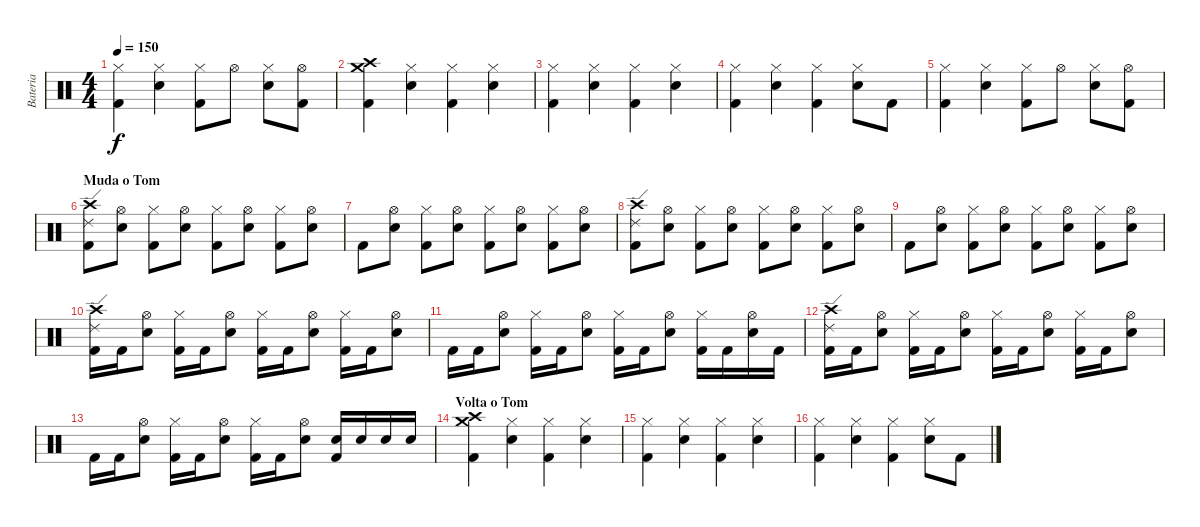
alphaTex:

\track ("Bateria" "Bateria") {instrument percussion}
\staff {score}
\articulation defaults
\ts (4 4)
\tempo 150
\clef neutral
\ks c
("Kick (hit) 2" "Hi-Hat (closed)").4{dy f} ("Metronome (bell)" "Hi-Hat (closed)").4 ("Kick (hit) 2" "Hi-Hat (closed)").8 "Hi-Hat (open)".8 ("Metronome (bell)" "Hi-Hat (closed)").8 ("Kick (hit) 2" "Hi-Hat (open)").8 |
("Kick (hit) 2" "Crash high (hit)" "Crash medium (hit)").4 ("Metronome (bell)" "Hi-Hat (closed)").4 ("Kick (hit) 2" "Hi-Hat (closed)").4 ("Metronome (bell)" "Hi-Hat (closed)").4 |
("Kick (hit) 2" "Hi-Hat (closed)").4 ("Metronome (bell)" "Hi-Hat (closed)").4 ("Kick (hit) 2" "Hi-Hat (closed)").4 ("Metronome (bell)" "Hi-Hat (closed)").4 |
("Kick (hit) 2" "Hi-Hat (closed)").4 ("Metronome (bell)" "Hi-Hat (closed)").4 ("Kick (hit) 2" "Hi-Hat (closed)").4 ("Metronome (bell)" "Hi-Hat (closed)").8 "Kick (hit) 2".8 |
("Kick (hit) 2" "Hi-Hat (closed)").4 ("Metronome (bell)" "Hi-Hat (closed)").4 ("Kick (hit) 2" "Hi-Hat (closed)").8 "Hi-Hat (open)".8 ("Metronome (bell)" "Hi-Hat (closed)").8 ("Kick (hit) 2" "Hi-Hat (open)").8 |
\section ("" "Muda o Tom")
("Kick (hit) 2" "Ride (edge) 2" "Crash high (hit)").8 ("Metronome (bell)" "Hi-Hat (open)").8 ("Kick (hit) 2" "Hi-Hat (closed)").8 ("Metronome (bell)" "Hi-Hat (open)").8 ("Kick (hit) 2" "Hi-Hat (closed)").8 ("Metronome (bell)" "Hi-Hat (open)").8 ("Kick (hit) 2" "Hi-Hat (closed)").8 ("Metronome (bell)" "Hi-Hat (open)").8 |
"Kick (hit) 2".8 ("Metronome (bell)" "Hi-Hat (open)").8 ("Kick (hit) 2" "Hi-Hat (closed)").8 ("Metronome (bell)" "Hi-Hat (open)").8 ("Kick (hit) 2" "Hi-Hat (closed)").8 ("Metronome (bell)" "Hi-Hat (open)").8 ("Kick (hit) 2" "Hi-Hat (closed)").8 ("Metronome (bell)" "Hi-Hat (open)").8 |
("Kick (hit) 2" "Ride (edge) 2" "Crash high (hit)").8 ("Metronome (bell)" "Hi-Hat (open)").8 ("Kick (hit) 2" "Hi-Hat (closed)").8 ("Metronome (bell)" "Hi-Hat (open)").8 ("Kick (hit) 2" "Hi-Hat (closed)").8 ("Metronome (bell)" "Hi-Hat (open)").8 ("Kick (hit) 2" "Hi-Hat (closed)").8 ("Metronome (bell)" "Hi-Hat (open)").8 |
"Kick (hit) 2".8 ("Metronome (bell)" "Hi-Hat (open)").8 ("Kick (hit) 2" "Hi-Hat (closed)").8 ("Metronome (bell)" "Hi-Hat (open)").8 ("Kick (hit) 2" "Hi-Hat (closed)").8 ("Metronome (bell)" "Hi-Hat (open)").8 ("Kick (hit) 2" "Hi-Hat (closed)").8 ("Metronome (bell)" "Hi-Hat (open)").8 |
("Kick (hit) 2" "Ride (edge) 2" "Crash high (hit)").16 "Kick (hit) 2".16 ("Metronome (bell)" "Hi-Hat (open)").8 ("Kick (hit) 2" "Hi-Hat (closed)").16 "Kick (hit) 2".16 ("Metronome (bell)" "Hi-Hat (open)").8 ("Kick (hit) 2" "Hi-Hat (closed)").16 "Kick (hit) 2".16 ("Metronome (bell)" "Hi-Hat (open)").8 ("Kick (hit) 2" "Hi-Hat (closed)").16 "Kick (hit) 2".16 ("Metronome (bell)" "Hi-Hat (open)").8 |
"Kick (hit) 2".16 "Kick (hit) 2".16 ("Metronome (bell)" "Hi-Hat (open)").8 ("Kick (hit) 2" "Hi-Hat (closed)").16 "Kick (hit) 2".16 ("Metronome (bell)" "Hi-Hat (open)").8 ("Kick (hit) 2" "Hi-Hat (closed)").16 "Kick (hit) 2".16 ("Metronome (bell)" "Hi-Hat (open)").8 ("Kick (hit) 2" "Hi-Hat (closed)").16 "Kick (hit) 2".16 ("Metronome (bell)" "Hi-Hat (open)").16 "Kick (hit) 2".16 |
("Kick (hit) 2" "Ride (edge) 2" "Crash high (hit)").16 "Kick (hit) 2".16 ("Metronome (bell)" "Hi-Hat (open)").8 ("Kick (hit) 2" "Hi-Hat (closed)").16 "Kick (hit) 2".16 ("Metronome (bell)" "Hi-Hat (open)").8 ("Kick (hit) 2" "Hi-Hat (closed)").16 "Kick (hit) 2".16 ("Metronome (bell)" "Hi-Hat (open)").8 ("Kick (hit) 2" "Hi-Hat (closed)").16 "Kick (hit) 2".16 ("Metronome (bell)" "Hi-Hat (open)").8 |
"Kick (hit) 2".16 "Kick (hit) 2".16 ("Metronome (bell)" "Hi-Hat (open)").8 ("Kick (hit) 2" "Hi-Hat (closed)").16 "Kick (hit) 2".16 ("Metronome (bell)" "Hi-Hat (open)").8 ("Kick (hit) 2" "Hi-Hat (closed)").16 "Kick (hit) 2".16 ("Metronome (bell)" "Hi-Hat (open)").8 ("Kick (hit) 2" "Metronome (bell)").16 "Metronome (bell)".16 "Metronome (bell)".16 "Metronome (bell)".16 |
\section ("" "Volta o Tom")
("Kick (hit) 2" "Crash high (hit)" "Crash medium (hit)").4 ("Metronome (bell)" "Hi-Hat (closed)").4 ("Kick (hit) 2" "Hi-Hat (closed)").4 ("Metronome (bell)" "Hi-Hat (closed)").4 |
("Kick (hit) 2" "Hi-Hat (closed)").4 ("Metronome (bell)" "Hi-Hat (closed)").4 ("Kick (hit) 2" "Hi-Hat (closed)").4 ("Metronome (bell)" "Hi-Hat (closed)").4 |
("Kick (hit) 2" "Hi-Hat (closed)").4 ("Metronome (bell)" "Hi-Hat (closed)").4 ("Kick (hit) 2" "Hi-Hat (closed)").4 ("Metronome (bell)" "Hi-Hat (closed)").8 "Kick (hit) 2".8
